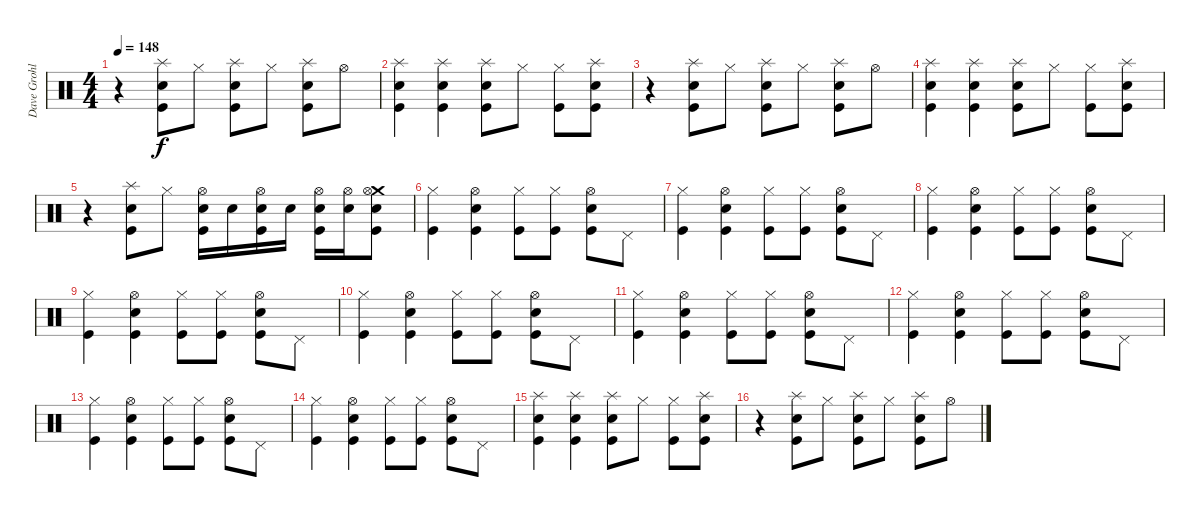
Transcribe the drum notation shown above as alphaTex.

\track ("Dave Grohl" "Dave Grohl") {instrument percussion}
\staff {score}
\articulation defaults
\ts (4 4)
\tempo 148
\clef neutral
\ks c
r.4{dy f} ("Splash (hit)" "Snare (hit) 2" "Kick (hit)").8 "Hi-Hat (closed)".8 ("Splash (hit)" "Snare (hit) 2" "Kick (hit)").8 "Hi-Hat (closed)".8 ("Splash (hit)" "Snare (hit) 2" "Kick (hit)").8 "Hi-Hat (open)".8 |
("Splash (hit)" "Snare (hit) 2" "Kick (hit)").4 ("Splash (hit)" "Snare (hit) 2" "Kick (hit)").4 ("Splash (hit)" "Snare (hit) 2" "Kick (hit)").8 "Hi-Hat (closed)".8 ("Hi-Hat (closed)" "Kick (hit)").8 ("Splash (hit)" "Snare (hit) 2" "Kick (hit)").8 |
r.4 ("Splash (hit)" "Snare (hit) 2" "Kick (hit)").8 "Hi-Hat (closed)".8 ("Splash (hit)" "Snare (hit) 2" "Kick (hit)").8 "Hi-Hat (closed)".8 ("Splash (hit)" "Snare (hit) 2" "Kick (hit)").8 "Hi-Hat (open)".8 |
("Splash (hit)" "Snare (hit) 2" "Kick (hit)").4 ("Splash (hit)" "Snare (hit) 2" "Kick (hit)").4 ("Splash (hit)" "Snare (hit) 2" "Kick (hit)").8 "Hi-Hat (closed)".8 ("Hi-Hat (closed)" "Kick (hit)").8 ("Splash (hit)" "Snare (hit) 2" "Kick (hit)").8 |
r.4 ("Splash (hit)" "Snare (hit) 2" "Kick (hit)").8 "Hi-Hat (closed)".8 ("Hi-Hat (open)" "Snare (hit) 2" "Kick (hit)").16 "Snare (hit) 2".16 ("Hi-Hat (open)" "Snare (hit) 2" "Kick (hit)").16 "Snare (hit) 2".16 ("Hi-Hat (open)" "Snare (hit) 2" "Kick (hit)").16 ("Hi-Hat (open)" "Snare (hit) 2").16 ("Crash medium (hit)" "Hi-Hat (open)" "Snare (hit) 2" "Kick (hit)").8 |
("Hi-Hat (closed)" "Kick (hit)").4 ("Snare (hit) 2" "Hi-Hat (open)" "Kick (hit)").4 ("Hi-Hat (closed)" "Kick (hit)").8 ("Hi-Hat (closed)" "Kick (hit)").8 ("Snare (hit) 2" "Hi-Hat (open)" "Kick (hit)").8 "Pedal Hi-Hat (hit)".8 |
("Hi-Hat (closed)" "Kick (hit)").4 ("Snare (hit) 2" "Hi-Hat (open)" "Kick (hit)").4 ("Hi-Hat (closed)" "Kick (hit)").8 ("Hi-Hat (closed)" "Kick (hit)").8 ("Snare (hit) 2" "Hi-Hat (open)" "Kick (hit)").8 "Pedal Hi-Hat (hit)".8 |
("Hi-Hat (closed)" "Kick (hit)").4 ("Snare (hit) 2" "Hi-Hat (open)" "Kick (hit)").4 ("Hi-Hat (closed)" "Kick (hit)").8 ("Hi-Hat (closed)" "Kick (hit)").8 ("Snare (hit) 2" "Hi-Hat (open)" "Kick (hit)").8 "Pedal Hi-Hat (hit)".8 |
("Hi-Hat (closed)" "Kick (hit)").4 ("Snare (hit) 2" "Hi-Hat (open)" "Kick (hit)").4 ("Hi-Hat (closed)" "Kick (hit)").8 ("Hi-Hat (closed)" "Kick (hit)").8 ("Snare (hit) 2" "Hi-Hat (open)" "Kick (hit)").8 "Pedal Hi-Hat (hit)".8 |
("Hi-Hat (closed)" "Kick (hit)").4 ("Snare (hit) 2" "Hi-Hat (open)" "Kick (hit)").4 ("Hi-Hat (closed)" "Kick (hit)").8 ("Hi-Hat (closed)" "Kick (hit)").8 ("Snare (hit) 2" "Hi-Hat (open)" "Kick (hit)").8 "Pedal Hi-Hat (hit)".8 |
("Hi-Hat (closed)" "Kick (hit)").4 ("Snare (hit) 2" "Hi-Hat (open)" "Kick (hit)").4 ("Hi-Hat (closed)" "Kick (hit)").8 ("Hi-Hat (closed)" "Kick (hit)").8 ("Snare (hit) 2" "Hi-Hat (open)" "Kick (hit)").8 "Pedal Hi-Hat (hit)".8 |
("Hi-Hat (closed)" "Kick (hit)").4 ("Snare (hit) 2" "Hi-Hat (open)" "Kick (hit)").4 ("Hi-Hat (closed)" "Kick (hit)").8 ("Hi-Hat (closed)" "Kick (hit)").8 ("Snare (hit) 2" "Hi-Hat (open)" "Kick (hit)").8 "Pedal Hi-Hat (hit)".8 |
("Hi-Hat (closed)" "Kick (hit)").4 ("Snare (hit) 2" "Hi-Hat (open)" "Kick (hit)").4 ("Hi-Hat (closed)" "Kick (hit)").8 ("Hi-Hat (closed)" "Kick (hit)").8 ("Snare (hit) 2" "Hi-Hat (open)" "Kick (hit)").8 "Pedal Hi-Hat (hit)".8 |
("Hi-Hat (closed)" "Kick (hit)").4 ("Snare (hit) 2" "Hi-Hat (open)" "Kick (hit)").4 ("Hi-Hat (closed)" "Kick (hit)").8 ("Hi-Hat (closed)" "Kick (hit)").8 ("Snare (hit) 2" "Hi-Hat (open)" "Kick (hit)").8 "Pedal Hi-Hat (hit)".8 |
("Splash (hit)" "Snare (hit) 2" "Kick (hit)").4 ("Splash (hit)" "Snare (hit) 2" "Kick (hit)").4 ("Splash (hit)" "Snare (hit) 2" "Kick (hit)").8 "Hi-Hat (closed)".8 ("Hi-Hat (closed)" "Kick (hit)").8 ("Splash (hit)" "Snare (hit) 2" "Kick (hit)").8 |
r.4 ("Splash (hit)" "Snare (hit) 2" "Kick (hit)").8 "Hi-Hat (closed)".8 ("Splash (hit)" "Snare (hit) 2" "Kick (hit)").8 "Hi-Hat (closed)".8 ("Splash (hit)" "Snare (hit) 2" "Kick (hit)").8 "Hi-Hat (open)".8
